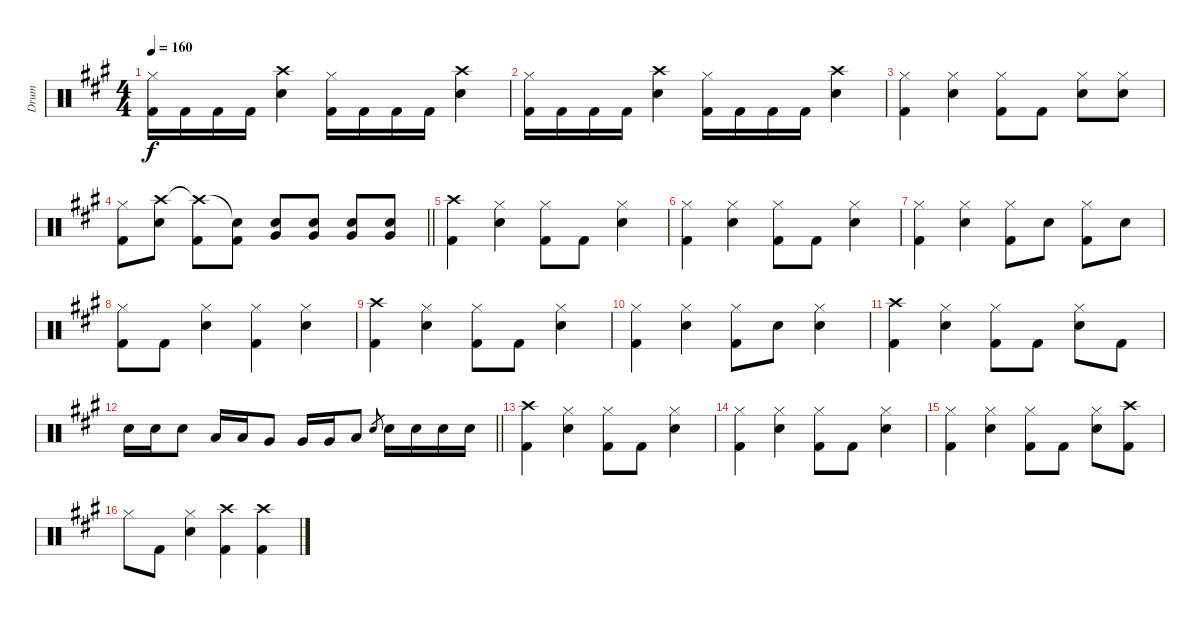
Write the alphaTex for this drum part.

\track ("Drum" "Drum") {instrument percussion}
\staff {score}
\articulation defaults
\ts (4 4)
\tempo 160
\clef neutral
\ks a
("Hi-Hat (closed)" "Kick (hit) 2").16{dy f} "Kick (hit) 2".16 "Kick (hit) 2".16 "Kick (hit) 2".16 ("Snare (hit) 2" "Crash high (hit)").4 ("Hi-Hat (closed)" "Kick (hit) 2").16 "Kick (hit) 2".16 "Kick (hit) 2".16 "Kick (hit) 2".16 ("Snare (hit) 2" "Crash high (hit)").4 |
("Hi-Hat (closed)" "Kick (hit) 2").16 "Kick (hit) 2".16 "Kick (hit) 2".16 "Kick (hit) 2".16 ("Snare (hit) 2" "Crash high (hit)").4 ("Hi-Hat (closed)" "Kick (hit) 2").16 "Kick (hit) 2".16 "Kick (hit) 2".16 "Kick (hit) 2".16 ("Snare (hit) 2" "Crash high (hit)").4 |
("Hi-Hat (closed)" "Kick (hit) 2").4 ("Hi-Hat (closed)" "Snare (hit) 2").4 ("Hi-Hat (closed)" "Kick (hit) 2").8 "Kick (hit) 2".8 ("Hi-Hat (closed)" "Snare (hit) 2").8 ("Hi-Hat (closed)" "Snare (hit) 2").8 |
\barLineRight lightlight
("Hi-Hat (closed)" "Kick (hit) 2").8 ("Snare (hit) 2" "Crash high (hit)").8 ("Kick (hit) 2" "Crash high (hit)"{t}).8 ("Kick (hit) 2" "Snare (hit)"{t}).8 ("Snare (hit) 2" "Very Low Tom (hit)").8 ("Snare (hit) 2" "Very Low Tom (hit)").8 ("Snare (hit) 2" "Very Low Tom (hit)").8 ("Snare (hit) 2" "Very Low Tom (hit)").8 |
("Kick (hit) 2" "Crash high (hit)").4 ("Hi-Hat (closed)" "Snare (hit) 2").4 ("Hi-Hat (closed)" "Kick (hit) 2").8 "Kick (hit) 2".8 ("Hi-Hat (closed)" "Snare (hit) 2").4 |
("Hi-Hat (closed)" "Kick (hit) 2").4 ("Hi-Hat (closed)" "Snare (hit) 2").4 ("Hi-Hat (closed)" "Kick (hit) 2").8 "Kick (hit) 2".8 ("Hi-Hat (closed)" "Snare (hit) 2").4 |
("Hi-Hat (closed)" "Kick (hit) 2").4 ("Hi-Hat (closed)" "Snare (hit) 2").4 ("Hi-Hat (closed)" "Kick (hit) 2").8 "Snare (hit) 2".8 ("Hi-Hat (closed)" "Kick (hit) 2").8 "Snare (hit) 2".8 |
("Hi-Hat (closed)" "Kick (hit) 2").8 "Kick (hit) 2".8 ("Hi-Hat (closed)" "Snare (hit) 2").4 ("Hi-Hat (closed)" "Kick (hit) 2").4 ("Hi-Hat (closed)" "Snare (hit) 2").4 |
("Kick (hit) 2" "Crash high (hit)").4 ("Hi-Hat (closed)" "Snare (hit) 2").4 ("Hi-Hat (closed)" "Kick (hit) 2").8 "Kick (hit) 2".8 ("Hi-Hat (closed)" "Snare (hit) 2").4 |
("Hi-Hat (closed)" "Kick (hit) 2").4 ("Hi-Hat (closed)" "Snare (hit) 2").4 ("Hi-Hat (closed)" "Kick (hit) 2").8 "Snare (hit) 2".8 ("Hi-Hat (closed)" "Snare (hit) 2").4 |
("Kick (hit) 2" "Crash high (hit)").4 ("Hi-Hat (closed)" "Snare (hit) 2").4 ("Hi-Hat (closed)" "Kick (hit) 2").8 "Kick (hit) 2".8 ("Hi-Hat (closed)" "Snare (hit) 2").8 "Kick (hit) 2".8 |
\barLineRight lightlight "Snare (hit) 2".16 "Snare (hit) 2".16 "Snare (hit) 2".8 "Low Tom (hit)".16 "Low Tom (hit)".16 "Very Low Tom (hit)".8 "Very Low Tom (hit)".16 "Very Low Tom (hit)".16 "Low Floor Tom (hit)".8 "Snare (hit) 2".8{gr} "Snare (hit) 2".16 "Snare (hit) 2".16 "Snare (hit) 2".16 "Snare (hit) 2".16
|
("Kick (hit) 2" "Crash high (hit)").4 ("Hi-Hat (closed)" "Snare (hit) 2").4 ("Hi-Hat (closed)" "Kick (hit) 2").8 "Kick (hit) 2".8 ("Hi-Hat (closed)" "Snare (hit) 2").4 |
("Hi-Hat (closed)" "Kick (hit) 2").4 ("Hi-Hat (closed)" "Snare (hit) 2").4 ("Hi-Hat (closed)" "Kick (hit) 2").8 "Kick (hit) 2".8 ("Hi-Hat (closed)" "Snare (hit) 2").4 |
("Hi-Hat (closed)" "Kick (hit) 2").4 ("Hi-Hat (closed)" "Snare (hit) 2").4 ("Hi-Hat (closed)" "Kick (hit) 2").8 "Kick (hit) 2".8 ("Hi-Hat (closed)" "Snare (hit) 2").8 ("Kick (hit) 2" "Crash high (hit)").8 |
"Hi-Hat (closed)".8 "Kick (hit) 2".8 ("Hi-Hat (closed)" "Snare (hit) 2").4 ("Kick (hit) 2" "Crash high (hit)").4 ("Kick (hit) 2" "Crash high (hit)").4
